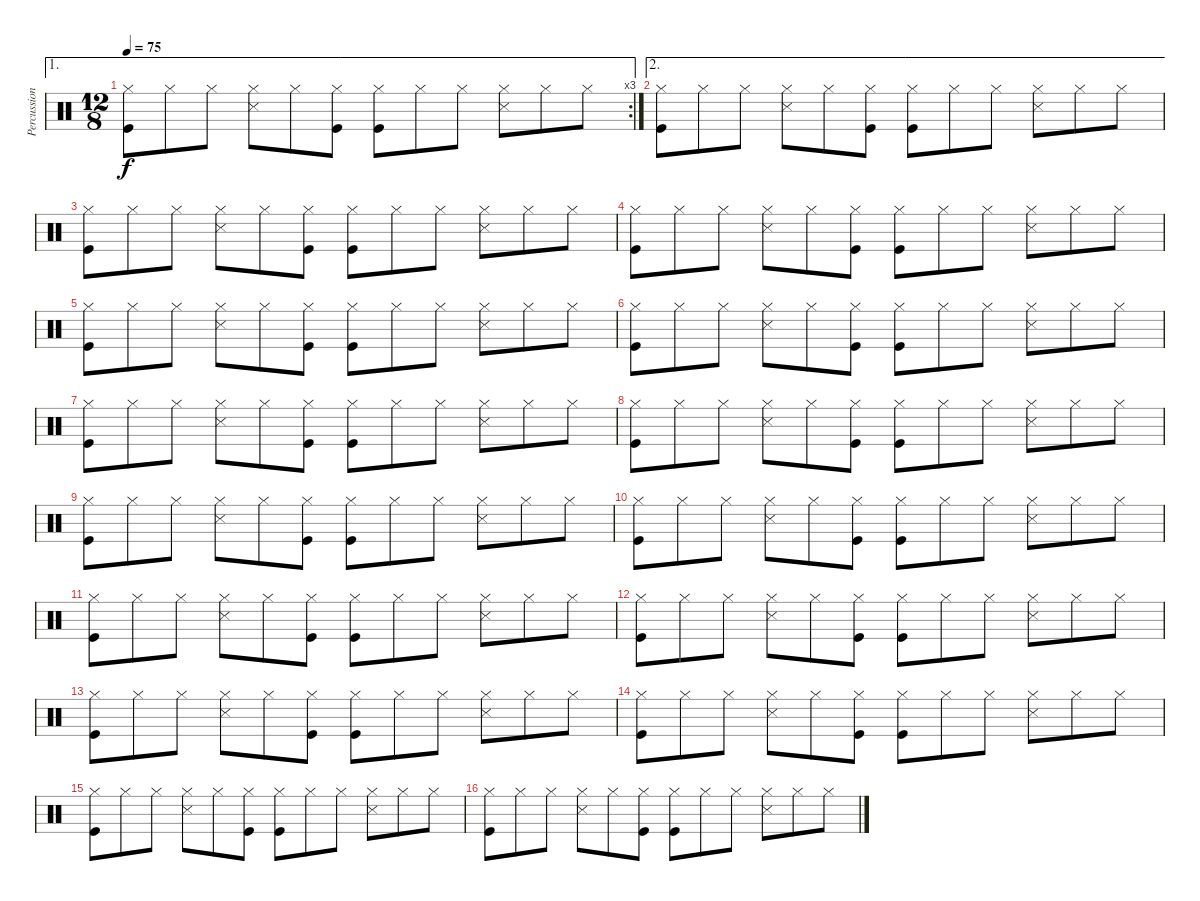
\track ("Percussion" "Percussion") {instrument percussion}
\staff {score}
\articulation defaults
\ae 1
\rc 3
\ts (12 8)
\tempo 75
\clef neutral
\ks c
("Hi-Hat (closed)" "Kick (hit)").8{dy f} "Hi-Hat (closed)".8 "Hi-Hat (closed)".8 ("Hi-Hat (closed)" "Snare (side stick) 3").8 "Hi-Hat (closed)".8 ("Hi-Hat (closed)" "Kick (hit)").8 ("Hi-Hat (closed)" "Kick (hit)").8 "Hi-Hat (closed)".8 "Hi-Hat (closed)".8 ("Hi-Hat (closed)" "Snare (side stick) 3").8 "Hi-Hat (closed)".8 "Hi-Hat (closed)".8 |
\ae 2
("Hi-Hat (closed)" "Kick (hit)").8 "Hi-Hat (closed)".8 "Hi-Hat (closed)".8 ("Hi-Hat (closed)" "Snare (side stick) 3").8 "Hi-Hat (closed)".8 ("Hi-Hat (closed)" "Kick (hit)").8 ("Hi-Hat (closed)" "Kick (hit)").8 "Hi-Hat (closed)".8 "Hi-Hat (closed)".8 ("Hi-Hat (closed)" "Snare (side stick) 3").8 "Hi-Hat (closed)".8 "Hi-Hat (closed)".8 |
("Hi-Hat (closed)" "Kick (hit)").8 "Hi-Hat (closed)".8 "Hi-Hat (closed)".8 ("Hi-Hat (closed)" "Snare (side stick) 3").8 "Hi-Hat (closed)".8 ("Hi-Hat (closed)" "Kick (hit)").8 ("Hi-Hat (closed)" "Kick (hit)").8 "Hi-Hat (closed)".8 "Hi-Hat (closed)".8 ("Hi-Hat (closed)" "Snare (side stick) 3").8 "Hi-Hat (closed)".8 "Hi-Hat (closed)".8 |
("Hi-Hat (closed)" "Kick (hit)").8 "Hi-Hat (closed)".8 "Hi-Hat (closed)".8 ("Hi-Hat (closed)" "Snare (side stick) 3").8 "Hi-Hat (closed)".8 ("Hi-Hat (closed)" "Kick (hit)").8 ("Hi-Hat (closed)" "Kick (hit)").8 "Hi-Hat (closed)".8 "Hi-Hat (closed)".8 ("Hi-Hat (closed)" "Snare (side stick) 3").8 "Hi-Hat (closed)".8 "Hi-Hat (closed)".8 |
("Hi-Hat (closed)" "Kick (hit)").8 "Hi-Hat (closed)".8 "Hi-Hat (closed)".8 ("Hi-Hat (closed)" "Snare (side stick) 3").8 "Hi-Hat (closed)".8 ("Hi-Hat (closed)" "Kick (hit)").8 ("Hi-Hat (closed)" "Kick (hit)").8 "Hi-Hat (closed)".8 "Hi-Hat (closed)".8 ("Hi-Hat (closed)" "Snare (side stick) 3").8 "Hi-Hat (closed)".8 "Hi-Hat (closed)".8 |
("Hi-Hat (closed)" "Kick (hit)").8 "Hi-Hat (closed)".8 "Hi-Hat (closed)".8 ("Hi-Hat (closed)" "Snare (side stick) 3").8 "Hi-Hat (closed)".8 ("Hi-Hat (closed)" "Kick (hit)").8 ("Hi-Hat (closed)" "Kick (hit)").8 "Hi-Hat (closed)".8 "Hi-Hat (closed)".8 ("Hi-Hat (closed)" "Snare (side stick) 3").8 "Hi-Hat (closed)".8 "Hi-Hat (closed)".8 |
("Hi-Hat (closed)" "Kick (hit)").8 "Hi-Hat (closed)".8 "Hi-Hat (closed)".8 ("Hi-Hat (closed)" "Snare (side stick) 3").8 "Hi-Hat (closed)".8 ("Hi-Hat (closed)" "Kick (hit)").8 ("Hi-Hat (closed)" "Kick (hit)").8 "Hi-Hat (closed)".8 "Hi-Hat (closed)".8 ("Hi-Hat (closed)" "Snare (side stick) 3").8 "Hi-Hat (closed)".8 "Hi-Hat (closed)".8 |
("Hi-Hat (closed)" "Kick (hit)").8 "Hi-Hat (closed)".8 "Hi-Hat (closed)".8 ("Hi-Hat (closed)" "Snare (side stick) 3").8 "Hi-Hat (closed)".8 ("Hi-Hat (closed)" "Kick (hit)").8 ("Hi-Hat (closed)" "Kick (hit)").8 "Hi-Hat (closed)".8 "Hi-Hat (closed)".8 ("Hi-Hat (closed)" "Snare (side stick) 3").8 "Hi-Hat (closed)".8 "Hi-Hat (closed)".8 |
("Hi-Hat (closed)" "Kick (hit)").8 "Hi-Hat (closed)".8 "Hi-Hat (closed)".8 ("Hi-Hat (closed)" "Snare (side stick) 3").8 "Hi-Hat (closed)".8 ("Hi-Hat (closed)" "Kick (hit)").8 ("Hi-Hat (closed)" "Kick (hit)").8 "Hi-Hat (closed)".8 "Hi-Hat (closed)".8 ("Hi-Hat (closed)" "Snare (side stick) 3").8 "Hi-Hat (closed)".8 "Hi-Hat (closed)".8 |
("Hi-Hat (closed)" "Kick (hit)").8 "Hi-Hat (closed)".8 "Hi-Hat (closed)".8 ("Hi-Hat (closed)" "Snare (side stick) 3").8 "Hi-Hat (closed)".8 ("Hi-Hat (closed)" "Kick (hit)").8 ("Hi-Hat (closed)" "Kick (hit)").8 "Hi-Hat (closed)".8 "Hi-Hat (closed)".8 ("Hi-Hat (closed)" "Snare (side stick) 3").8 "Hi-Hat (closed)".8 "Hi-Hat (closed)".8 |
("Hi-Hat (closed)" "Kick (hit)").8 "Hi-Hat (closed)".8 "Hi-Hat (closed)".8 ("Hi-Hat (closed)" "Snare (side stick) 3").8 "Hi-Hat (closed)".8 ("Hi-Hat (closed)" "Kick (hit)").8 ("Hi-Hat (closed)" "Kick (hit)").8 "Hi-Hat (closed)".8 "Hi-Hat (closed)".8 ("Hi-Hat (closed)" "Snare (side stick) 3").8 "Hi-Hat (closed)".8 "Hi-Hat (closed)".8 |
("Hi-Hat (closed)" "Kick (hit)").8 "Hi-Hat (closed)".8 "Hi-Hat (closed)".8 ("Hi-Hat (closed)" "Snare (side stick) 3").8 "Hi-Hat (closed)".8 ("Hi-Hat (closed)" "Kick (hit)").8 ("Hi-Hat (closed)" "Kick (hit)").8 "Hi-Hat (closed)".8 "Hi-Hat (closed)".8 ("Hi-Hat (closed)" "Snare (side stick) 3").8 "Hi-Hat (closed)".8 "Hi-Hat (closed)".8 |
("Hi-Hat (closed)" "Kick (hit)").8 "Hi-Hat (closed)".8 "Hi-Hat (closed)".8 ("Hi-Hat (closed)" "Snare (side stick) 3").8 "Hi-Hat (closed)".8 ("Hi-Hat (closed)" "Kick (hit)").8 ("Hi-Hat (closed)" "Kick (hit)").8 "Hi-Hat (closed)".8 "Hi-Hat (closed)".8 ("Hi-Hat (closed)" "Snare (side stick) 3").8 "Hi-Hat (closed)".8 "Hi-Hat (closed)".8 |
("Hi-Hat (closed)" "Kick (hit)").8 "Hi-Hat (closed)".8 "Hi-Hat (closed)".8 ("Hi-Hat (closed)" "Snare (side stick) 3").8 "Hi-Hat (closed)".8 ("Hi-Hat (closed)" "Kick (hit)").8 ("Hi-Hat (closed)" "Kick (hit)").8 "Hi-Hat (closed)".8 "Hi-Hat (closed)".8 ("Hi-Hat (closed)" "Snare (side stick) 3").8 "Hi-Hat (closed)".8 "Hi-Hat (closed)".8 |
("Hi-Hat (closed)" "Kick (hit)").8 "Hi-Hat (closed)".8 "Hi-Hat (closed)".8 ("Hi-Hat (closed)" "Snare (side stick) 3").8 "Hi-Hat (closed)".8 ("Hi-Hat (closed)" "Kick (hit)").8 ("Hi-Hat (closed)" "Kick (hit)").8 "Hi-Hat (closed)".8 "Hi-Hat (closed)".8 ("Hi-Hat (closed)" "Snare (side stick) 3").8 "Hi-Hat (closed)".8 "Hi-Hat (closed)".8 |
("Hi-Hat (closed)" "Kick (hit)").8 "Hi-Hat (closed)".8 "Hi-Hat (closed)".8 ("Hi-Hat (closed)" "Snare (side stick) 3").8 "Hi-Hat (closed)".8 ("Hi-Hat (closed)" "Kick (hit)").8 ("Hi-Hat (closed)" "Kick (hit)").8 "Hi-Hat (closed)".8 "Hi-Hat (closed)".8 ("Hi-Hat (closed)" "Snare (side stick) 3").8 "Hi-Hat (closed)".8 "Hi-Hat (closed)".8
